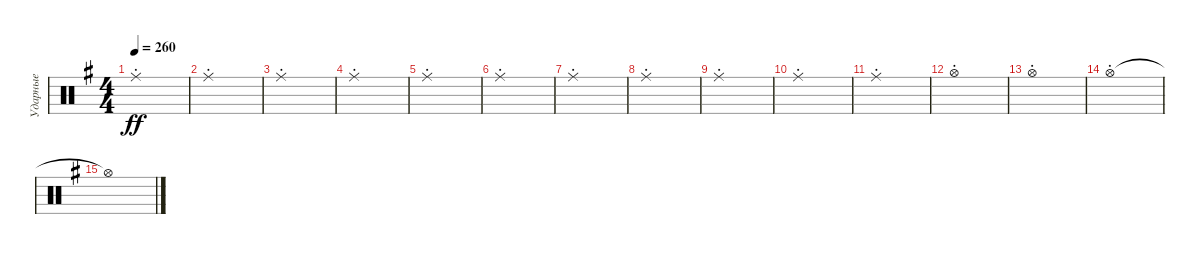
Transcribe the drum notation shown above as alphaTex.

\track ("Ударные" "Ударные") {instrument percussion}
\staff {score}
\articulation defaults
\ts (4 4)
\tempo 260
\clef neutral
\ks g "Ride (middle)"{st}.1{dy ff}
|
"Ride (middle)"{st}.1 |
"Ride (middle)"{st}.1 |
"Ride (middle)"{st}.1 |
"Ride (middle)"{st}.1 |
"Ride (middle)"{st}.1 |
"Ride (middle)"{st}.1 |
"Ride (middle)"{st}.1 |
"Ride (middle)"{st}.1 |
"Ride (middle)"{st}.1 |
"Ride (middle)"{st}.1 |
"Hi-Hat (open)"{st}.1 |
"Hi-Hat (open)"{st}.1 |
"Hi-Hat (open)"{st}.1 |
"Hi-Hat (open)"{t}.1
